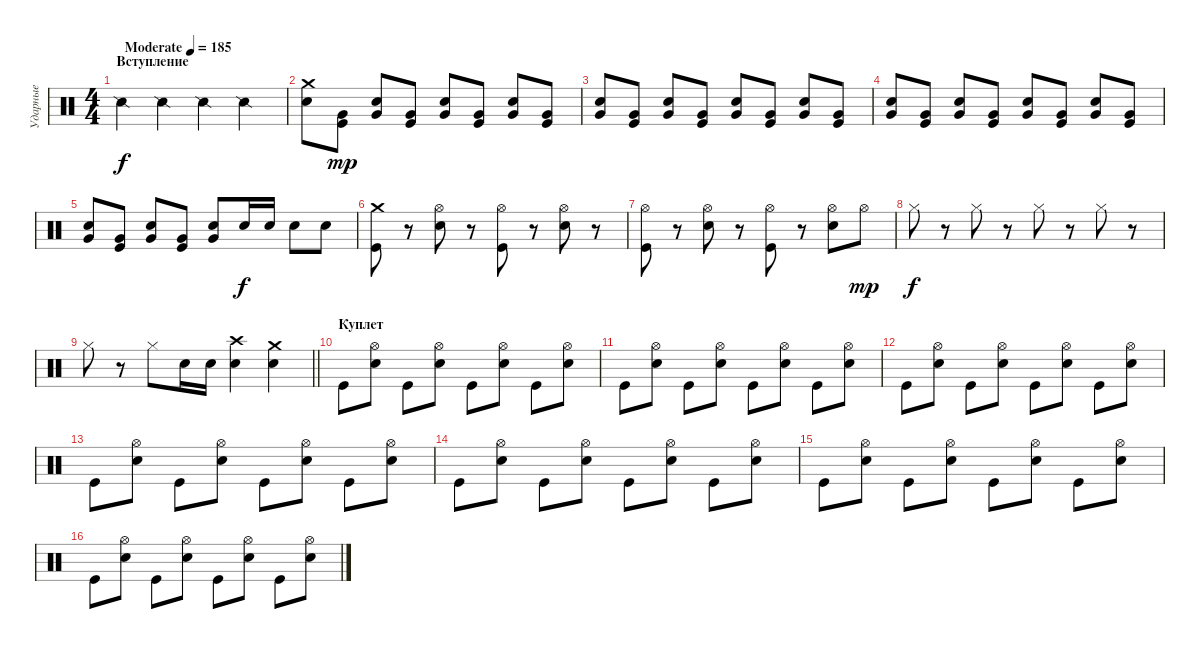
\track ("Ударные" "Ударные") {instrument percussion}
\staff {score}
\articulation defaults
\ts (4 4)
\section ("" "Вступление")
\tempo (185 "Moderate")
\clef neutral
\ks c "Snare (side stick) 2".4{dy f} "Snare (side stick) 2".4 "Snare (side stick) 2".4 "Snare (side stick) 2".4
|
("Crash medium (hit)" "Electric Snare (hit)").8 ("Very Low Tom (hit)" "Kick (hit)").8{dy mp} ("Very Low Tom (hit)" "Electric Snare (hit)").8 ("Very Low Tom (hit)" "Kick (hit)").8 ("Very Low Tom (hit)" "Electric Snare (hit)").8 ("Very Low Tom (hit)" "Kick (hit)").8 ("Very Low Tom (hit)" "Electric Snare (hit)").8 ("Very Low Tom (hit)" "Kick (hit)").8 |
("Very Low Tom (hit)" "Electric Snare (hit)").8 ("Very Low Tom (hit)" "Kick (hit)").8 ("Very Low Tom (hit)" "Electric Snare (hit)").8 ("Very Low Tom (hit)" "Kick (hit)").8 ("Very Low Tom (hit)" "Electric Snare (hit)").8 ("Very Low Tom (hit)" "Kick (hit)").8 ("Very Low Tom (hit)" "Electric Snare (hit)").8 ("Very Low Tom (hit)" "Kick (hit)").8 |
("Very Low Tom (hit)" "Electric Snare (hit)").8 ("Very Low Tom (hit)" "Kick (hit)").8 ("Very Low Tom (hit)" "Electric Snare (hit)").8 ("Very Low Tom (hit)" "Kick (hit)").8 ("Very Low Tom (hit)" "Electric Snare (hit)").8 ("Very Low Tom (hit)" "Kick (hit)").8 ("Very Low Tom (hit)" "Electric Snare (hit)").8 ("Very Low Tom (hit)" "Kick (hit)").8 |
("Very Low Tom (hit)" "Electric Snare (hit)").8 ("Very Low Tom (hit)" "Kick (hit)").8 ("Very Low Tom (hit)" "Electric Snare (hit)").8 ("Very Low Tom (hit)" "Kick (hit)").8 ("Very Low Tom (hit)" "Electric Snare (hit)").8 "Electric Snare (hit)".16{dy f} "Electric Snare (hit)".16 "Electric Snare (hit)".8 "Electric Snare (hit)".8 |
("Crash medium (hit)" "Kick (hit)").8 r.8 ("Hi-Hat (open)" "Electric Snare (hit)").8 r.8 ("Hi-Hat (open)" "Kick (hit)").8 r.8 ("Hi-Hat (open)" "Electric Snare (hit)").8 r.8 |
("Hi-Hat (open)" "Kick (hit)").8 r.8 ("Hi-Hat (open)" "Electric Snare (hit)").8 r.8 ("Hi-Hat (open)" "Kick (hit)").8 r.8 ("Hi-Hat (open)" "Electric Snare (hit)").8 "Hi-Hat (open)".8{dy mp} |
"Hi-Hat (closed)".8{dy f} r.8 "Hi-Hat (closed)".8 r.8 "Hi-Hat (closed)".8 r.8 "Hi-Hat (closed)".8 r.8 |
\barLineRight lightlight "Hi-Hat (closed)".8
r.8 "Hi-Hat (closed)".8 "Electric Snare (hit)".16 "Electric Snare (hit)".16 ("Crash high (hit)" "Electric Snare (hit)").4 ("Crash medium (hit)" "Electric Snare (hit)").4 |
\section ("" "Куплет")
"Kick (hit)".8 ("Hi-Hat (open)" "Electric Snare (hit)").8 "Kick (hit)".8 ("Hi-Hat (open)" "Electric Snare (hit)").8 "Kick (hit)".8 ("Hi-Hat (open)" "Electric Snare (hit)").8 "Kick (hit)".8 ("Hi-Hat (open)" "Electric Snare (hit)").8 |
"Kick (hit)".8 ("Hi-Hat (open)" "Electric Snare (hit)").8 "Kick (hit)".8 ("Hi-Hat (open)" "Electric Snare (hit)").8 "Kick (hit)".8 ("Hi-Hat (open)" "Electric Snare (hit)").8 "Kick (hit)".8 ("Hi-Hat (open)" "Electric Snare (hit)").8 |
"Kick (hit)".8 ("Hi-Hat (open)" "Electric Snare (hit)").8 "Kick (hit)".8 ("Hi-Hat (open)" "Electric Snare (hit)").8 "Kick (hit)".8 ("Hi-Hat (open)" "Electric Snare (hit)").8 "Kick (hit)".8 ("Hi-Hat (open)" "Electric Snare (hit)").8 |
"Kick (hit)".8 ("Hi-Hat (open)" "Electric Snare (hit)").8 "Kick (hit)".8 ("Hi-Hat (open)" "Electric Snare (hit)").8 "Kick (hit)".8 ("Hi-Hat (open)" "Electric Snare (hit)").8 "Kick (hit)".8 ("Hi-Hat (open)" "Electric Snare (hit)").8 |
"Kick (hit)".8 ("Hi-Hat (open)" "Electric Snare (hit)").8 "Kick (hit)".8 ("Hi-Hat (open)" "Electric Snare (hit)").8 "Kick (hit)".8 ("Hi-Hat (open)" "Electric Snare (hit)").8 "Kick (hit)".8 ("Hi-Hat (open)" "Electric Snare (hit)").8 |
"Kick (hit)".8 ("Hi-Hat (open)" "Electric Snare (hit)").8 "Kick (hit)".8 ("Hi-Hat (open)" "Electric Snare (hit)").8 "Kick (hit)".8 ("Hi-Hat (open)" "Electric Snare (hit)").8 "Kick (hit)".8 ("Hi-Hat (open)" "Electric Snare (hit)").8 |
"Kick (hit)".8 ("Hi-Hat (open)" "Electric Snare (hit)").8 "Kick (hit)".8 ("Hi-Hat (open)" "Electric Snare (hit)").8 "Kick (hit)".8 ("Hi-Hat (open)" "Electric Snare (hit)").8 "Kick (hit)".8 ("Hi-Hat (open)" "Electric Snare (hit)").8
